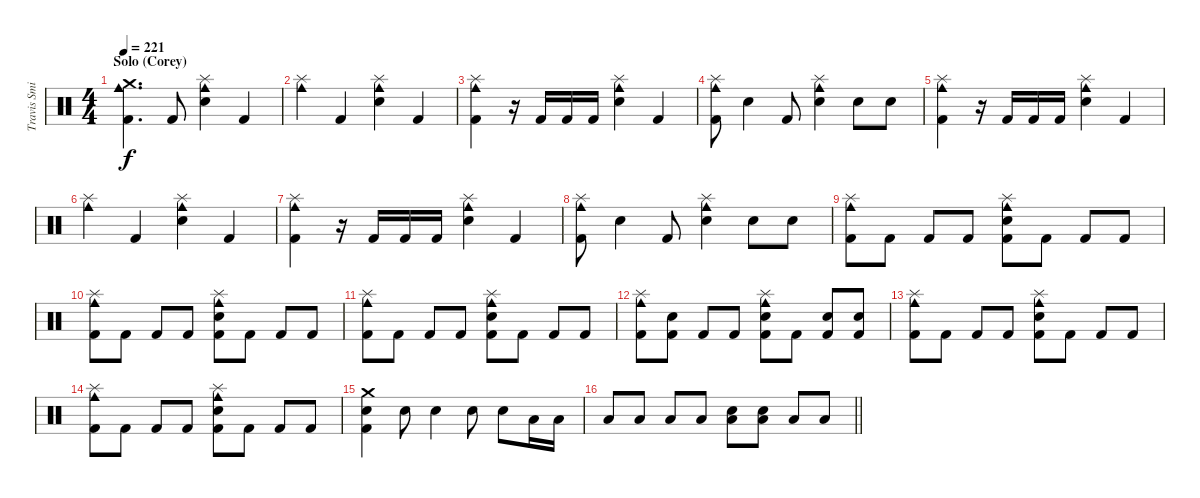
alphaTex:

\track ("Travis Smith" "Travis Smi") {instrument percussion}
\staff {score}
\articulation defaults
\ts (4 4)
\section ("" "Solo (Corey)")
\tempo 221
\clef neutral
\ks c
("Crash medium (hit)" "Cowbell medium (hit)" "Kick (hit) 2").4{d dy f} "Kick (hit) 2".8 ("Splash (hit)" "Electric Snare (hit)" "Cowbell medium (hit)").4 "Kick (hit) 2".4 |
("Splash (hit)" "Cowbell medium (hit)").4 "Kick (hit) 2".4 ("Splash (hit)" "Electric Snare (hit)" "Cowbell medium (hit)").4 "Kick (hit) 2".4 |
("Splash (hit)" "Cowbell medium (hit)" "Kick (hit) 2").4 r.16 "Kick (hit) 2".16 "Kick (hit) 2".16 "Kick (hit) 2".16 ("Splash (hit)" "Electric Snare (hit)" "Cowbell medium (hit)").4 "Kick (hit) 2".4 |
("Splash (hit)" "Cowbell medium (hit)" "Kick (hit) 2").8 "Electric Snare (hit)".4 "Kick (hit) 2".8 ("Splash (hit)" "Electric Snare (hit)" "Cowbell medium (hit)").4 "Electric Snare (hit)".8 "Electric Snare (hit)".8 |
("Splash (hit)" "Cowbell medium (hit)" "Kick (hit) 2").4 r.16 "Kick (hit) 2".16 "Kick (hit) 2".16 "Kick (hit) 2".16 ("Splash (hit)" "Electric Snare (hit)" "Cowbell medium (hit)").4 "Kick (hit) 2".4 |
("Splash (hit)" "Cowbell medium (hit)").4 "Kick (hit) 2".4 ("Splash (hit)" "Electric Snare (hit)" "Cowbell medium (hit)").4 "Kick (hit) 2".4 |
("Splash (hit)" "Cowbell medium (hit)" "Kick (hit) 2").4 r.16 "Kick (hit) 2".16 "Kick (hit) 2".16 "Kick (hit) 2".16 ("Splash (hit)" "Electric Snare (hit)" "Cowbell medium (hit)").4 "Kick (hit) 2".4 |
("Splash (hit)" "Cowbell medium (hit)" "Kick (hit) 2").8 "Electric Snare (hit)".4 "Kick (hit) 2".8 ("Splash (hit)" "Electric Snare (hit)" "Cowbell medium (hit)").4 "Electric Snare (hit)".8 "Electric Snare (hit)".8 |
("Splash (hit)" "Cowbell medium (hit)" "Kick (hit) 2").8 "Kick (hit) 2".8 "Kick (hit) 2".8 "Kick (hit) 2".8 ("Splash (hit)" "Electric Snare (hit)" "Cowbell medium (hit)" "Kick (hit) 2").8 "Kick (hit) 2".8 "Kick (hit) 2".8 "Kick (hit) 2".8 |
("Splash (hit)" "Cowbell medium (hit)" "Kick (hit) 2").8 "Kick (hit) 2".8 "Kick (hit) 2".8 "Kick (hit) 2".8 ("Splash (hit)" "Electric Snare (hit)" "Cowbell medium (hit)" "Kick (hit) 2").8 "Kick (hit) 2".8 "Kick (hit) 2".8 "Kick (hit) 2".8 |
("Splash (hit)" "Cowbell medium (hit)" "Kick (hit) 2").8 "Kick (hit) 2".8 "Kick (hit) 2".8 "Kick (hit) 2".8 ("Splash (hit)" "Electric Snare (hit)" "Cowbell medium (hit)" "Kick (hit) 2").8 "Kick (hit) 2".8 "Kick (hit) 2".8 "Kick (hit) 2".8 |
("Splash (hit)" "Cowbell medium (hit)" "Kick (hit) 2").8 ("Electric Snare (hit)" "Kick (hit) 2").8 "Kick (hit) 2".8 "Kick (hit) 2".8 ("Splash (hit)" "Electric Snare (hit)" "Cowbell medium (hit)" "Kick (hit) 2").8 "Kick (hit) 2".8 ("Electric Snare (hit)" "Kick (hit) 2").8 ("Electric Snare (hit)" "Kick (hit) 2").8 |
("Splash (hit)" "Cowbell medium (hit)" "Kick (hit) 2").8 "Kick (hit) 2".8 "Kick (hit) 2".8 "Kick (hit) 2".8 ("Splash (hit)" "Electric Snare (hit)" "Cowbell medium (hit)" "Kick (hit) 2").8 "Kick (hit) 2".8 "Kick (hit) 2".8 "Kick (hit) 2".8 |
("Splash (hit)" "Cowbell medium (hit)" "Kick (hit) 2").8 "Kick (hit) 2".8 "Kick (hit) 2".8 "Kick (hit) 2".8 ("Splash (hit)" "Electric Snare (hit)" "Cowbell medium (hit)" "Kick (hit) 2").8 "Kick (hit) 2".8 "Kick (hit) 2".8 "Kick (hit) 2".8 |
("Crash medium (hit)" "Electric Snare (hit)" "Kick (hit) 2").4 "Electric Snare (hit)".8 "Electric Snare (hit)".4 "Electric Snare (hit)".8 "Electric Snare (hit)".8 "Low Floor Tom (hit)".16 "Low Floor Tom (hit)".16 |
\barLineRight lightlight "Low Tom (hit)".8 "Low Tom (hit)".8 "Low Tom (hit)".8 "Low Tom (hit)".8
("Electric Snare (hit)" "Low Tom (hit)").8 ("Electric Snare (hit)" "Low Tom (hit)").8 "Low Tom (hit)".8 "Low Tom (hit)".8
